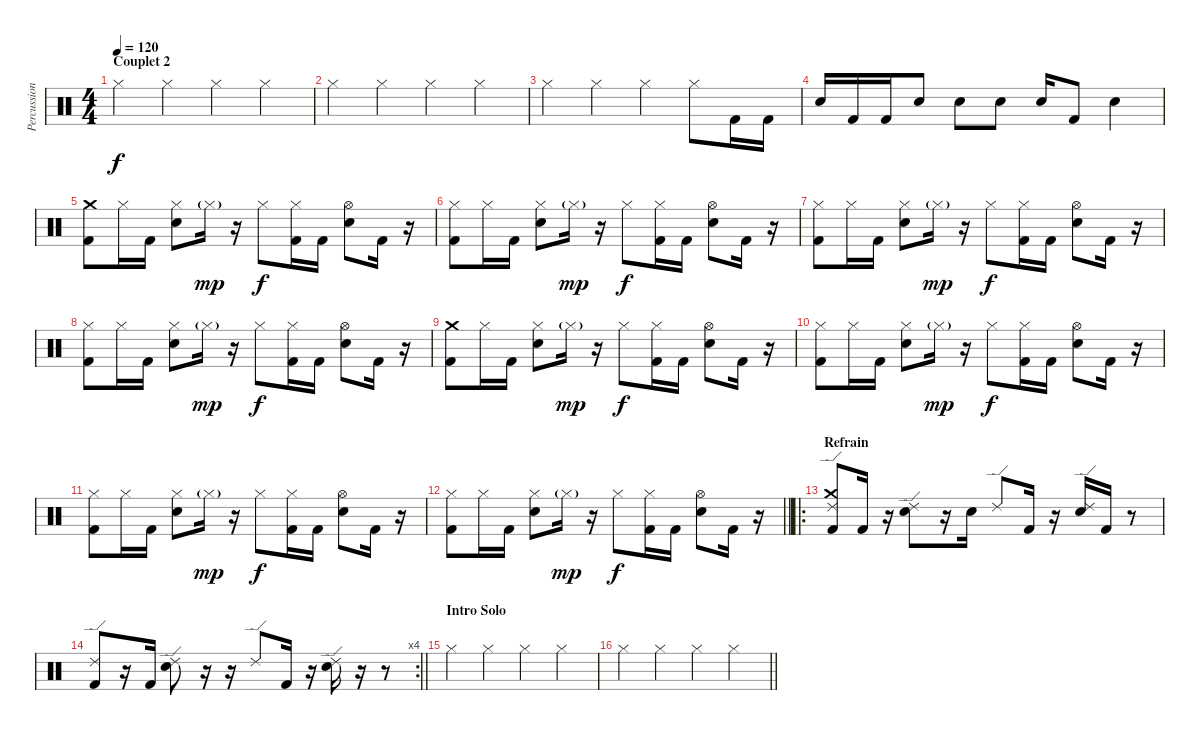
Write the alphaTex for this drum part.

\track ("Percussions" "Percussion") {instrument percussion}
\staff {score}
\articulation defaults
\ts (4 4)
\section ("" "Couplet 2")
\tempo 120
\clef neutral
\ks c "Hi-Hat (closed)".4{dy f} "Hi-Hat (closed)".4 "Hi-Hat (closed)".4 "Hi-Hat (closed)".4
|
"Hi-Hat (closed)".4 "Hi-Hat (closed)".4 "Hi-Hat (closed)".4 "Hi-Hat (closed)".4 |
"Hi-Hat (closed)".4 "Hi-Hat (closed)".4 "Hi-Hat (closed)".4 "Hi-Hat (closed)".8 "Kick (hit) 2".16 "Kick (hit) 2".16 |
"Electric Snare (hit)".16 "Kick (hit) 2".16 "Kick (hit) 2".16 "Electric Snare (hit)".8 "Electric Snare (hit)".8 "Electric Snare (hit)".8 "Electric Snare (hit)".16 "Kick (hit) 2".8 "Electric Snare (hit)".4 |
("Crash medium (hit)" "Kick (hit) 2").8 "Hi-Hat (closed)".16 "Kick (hit) 2".16 ("Hi-Hat (closed)" "Electric Snare (hit)").8 "Hi-Hat (closed)"{g}.16{dy mp} r.16 "Hi-Hat (closed)".8{dy f} ("Hi-Hat (closed)" "Kick (hit) 2").16 "Kick (hit) 2".16 ("Hi-Hat (open)" "Electric Snare (hit)").8 "Kick (hit) 2".16 r.16 |
("Hi-Hat (closed)" "Kick (hit) 2").8 "Hi-Hat (closed)".16 "Kick (hit) 2".16 ("Hi-Hat (closed)" "Electric Snare (hit)").8 "Hi-Hat (closed)"{g}.16{dy mp} r.16 "Hi-Hat (closed)".8{dy f} ("Hi-Hat (closed)" "Kick (hit) 2").16 "Kick (hit) 2".16 ("Hi-Hat (open)" "Electric Snare (hit)").8 "Kick (hit) 2".16 r.16 |
("Hi-Hat (closed)" "Kick (hit) 2").8 "Hi-Hat (closed)".16 "Kick (hit) 2".16 ("Hi-Hat (closed)" "Electric Snare (hit)").8 "Hi-Hat (closed)"{g}.16{dy mp} r.16 "Hi-Hat (closed)".8{dy f} ("Hi-Hat (closed)" "Kick (hit) 2").16 "Kick (hit) 2".16 ("Hi-Hat (open)" "Electric Snare (hit)").8 "Kick (hit) 2".16 r.16 |
("Hi-Hat (closed)" "Kick (hit) 2").8 "Hi-Hat (closed)".16 "Kick (hit) 2".16 ("Hi-Hat (closed)" "Electric Snare (hit)").8 "Hi-Hat (closed)"{g}.16{dy mp} r.16 "Hi-Hat (closed)".8{dy f} ("Hi-Hat (closed)" "Kick (hit) 2").16 "Kick (hit) 2".16 ("Hi-Hat (open)" "Electric Snare (hit)").8 "Kick (hit) 2".16 r.16 |
("Crash medium (hit)" "Kick (hit) 2").8 "Hi-Hat (closed)".16 "Kick (hit) 2".16 ("Hi-Hat (closed)" "Electric Snare (hit)").8 "Hi-Hat (closed)"{g}.16{dy mp} r.16 "Hi-Hat (closed)".8{dy f} ("Hi-Hat (closed)" "Kick (hit) 2").16 "Kick (hit) 2".16 ("Hi-Hat (open)" "Electric Snare (hit)").8 "Kick (hit) 2".16 r.16 |
("Hi-Hat (closed)" "Kick (hit) 2").8 "Hi-Hat (closed)".16 "Kick (hit) 2".16 ("Hi-Hat (closed)" "Electric Snare (hit)").8 "Hi-Hat (closed)"{g}.16{dy mp} r.16 "Hi-Hat (closed)".8{dy f} ("Hi-Hat (closed)" "Kick (hit) 2").16 "Kick (hit) 2".16 ("Hi-Hat (open)" "Electric Snare (hit)").8 "Kick (hit) 2".16 r.16 |
("Hi-Hat (closed)" "Kick (hit) 2").8 "Hi-Hat (closed)".16 "Kick (hit) 2".16 ("Hi-Hat (closed)" "Electric Snare (hit)").8 "Hi-Hat (closed)"{g}.16{dy mp} r.16 "Hi-Hat (closed)".8{dy f} ("Hi-Hat (closed)" "Kick (hit) 2").16 "Kick (hit) 2".16 ("Hi-Hat (open)" "Electric Snare (hit)").8 "Kick (hit) 2".16 r.16 |
\barLineRight lightlight
("Hi-Hat (closed)" "Kick (hit) 2").8 "Hi-Hat (closed)".16 "Kick (hit) 2".16 ("Hi-Hat (closed)" "Electric Snare (hit)").8 "Hi-Hat (closed)"{g}.16{dy mp} r.16 "Hi-Hat (closed)".8{dy f} ("Hi-Hat (closed)" "Kick (hit) 2").16 "Kick (hit) 2".16 ("Hi-Hat (open)" "Electric Snare (hit)").8 "Kick (hit) 2".16 r.16 |
\ro
\section ("" "Refrain")
("Crash medium (hit)" "Ride (edge) 2" "Kick (hit) 2").8 "Kick (hit) 2".16 r.16 ("Ride (edge) 2" "Electric Snare (hit)").8 r.16 "Electric Snare (hit)".16 "Ride (edge) 2".8 "Kick (hit) 2".16 r.16 ("Ride (edge) 2" "Electric Snare (hit)").16 "Kick (hit) 2".16 r.8 |
\rc 4
\barLineRight lightlight
("Ride (edge) 2" "Kick (hit) 2").8 r.16 "Kick (hit) 2".16 ("Ride (edge) 2" "Electric Snare (hit)").8 r.16 r.16 "Ride (edge) 2".8 "Kick (hit) 2".16 r.16 ("Ride (edge) 2" "Electric Snare (hit)").16 r.16 r.8 |
\section ("" "Intro Solo")
"Hi-Hat (closed)".4 "Hi-Hat (closed)".4 "Hi-Hat (closed)".4 "Hi-Hat (closed)".4 |
\barLineRight lightlight "Hi-Hat (closed)".4 "Hi-Hat (closed)".4 "Hi-Hat (closed)".4 "Hi-Hat (closed)".4
